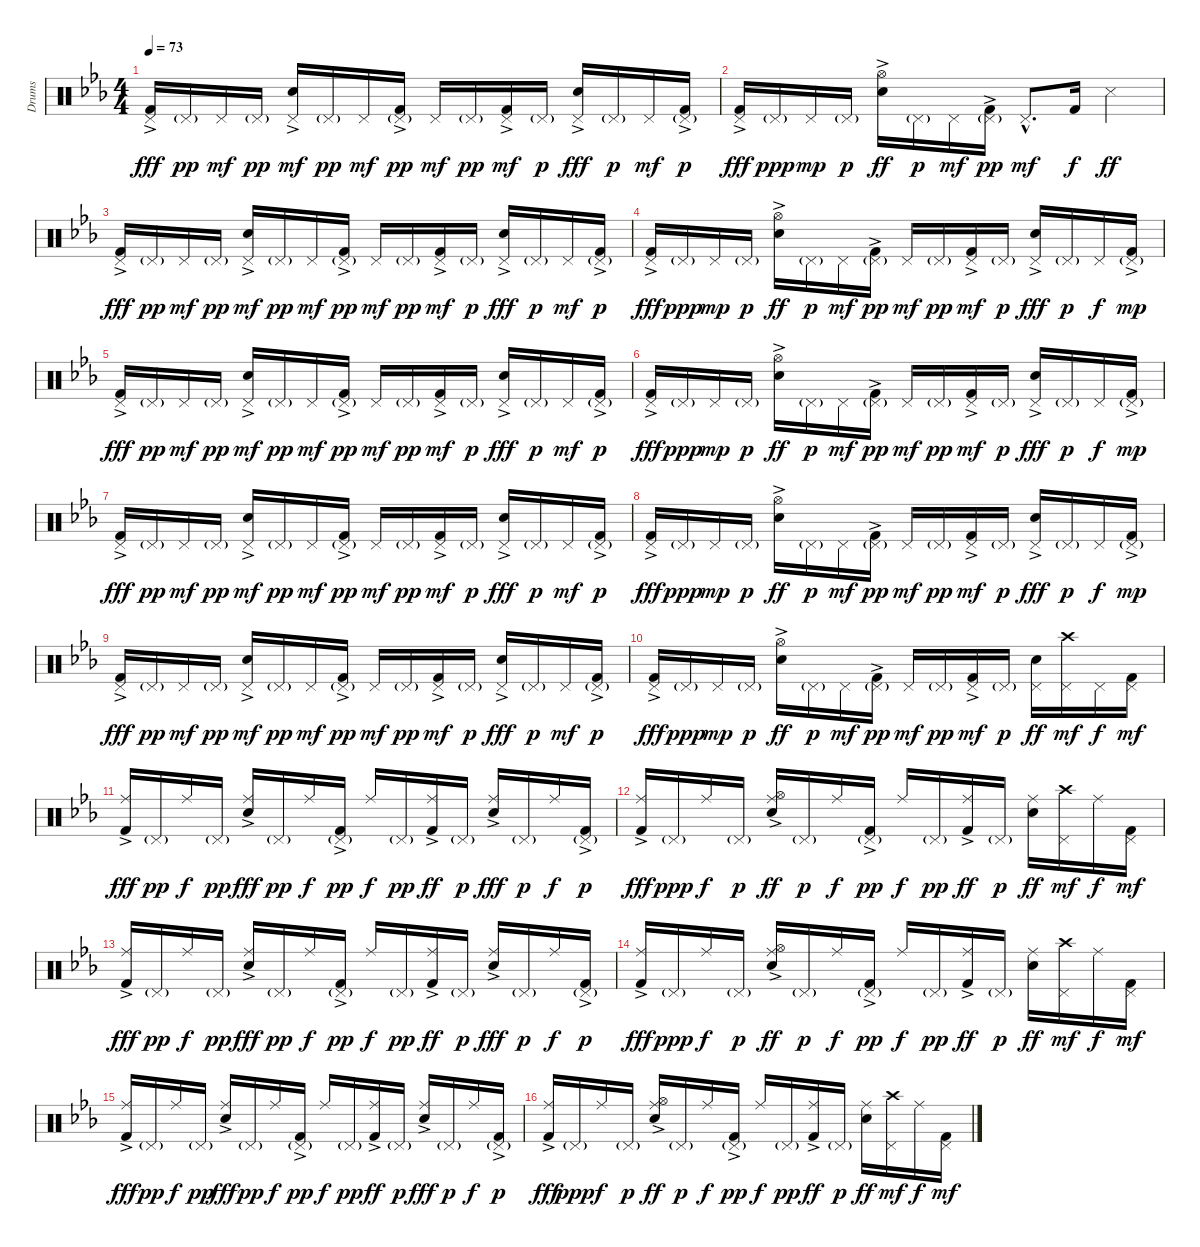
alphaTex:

\track ("Drums" "Drums") {instrument percussion}
\staff {score}
\articulation defaults
\ts (4 4)
\tempo 73
\clef neutral
\ks eb
("Kick (hit) 2"{ac} "Pedal Hi-Hat (hit)").16{dy fff} "Pedal Hi-Hat (hit)"{g}.16{dy pp} "Pedal Hi-Hat (hit)".16{dy mf} "Pedal Hi-Hat (hit)"{g}.16{dy pp} ("Snare (hit) 2"{ac} "Pedal Hi-Hat (hit)").16{dy mf} "Pedal Hi-Hat (hit)"{g}.16{dy pp} "Pedal Hi-Hat (hit)".16{dy mf} ("Kick (hit) 2"{ac} "Pedal Hi-Hat (hit)"{g}).16{dy pp} "Pedal Hi-Hat (hit)".16{dy mf} "Pedal Hi-Hat (hit)"{g}.16{dy pp} ("Kick (hit) 2"{ac} "Pedal Hi-Hat (hit)").16{dy mf} "Pedal Hi-Hat (hit)"{g}.16{dy p} ("Snare (hit) 2"{ac} "Pedal Hi-Hat (hit)").16{dy fff} "Pedal Hi-Hat (hit)"{g}.16{dy p} "Pedal Hi-Hat (hit)".16{dy mf} ("Kick (hit) 2"{ac} "Pedal Hi-Hat (hit)"{g}).16{dy p} |
("Kick (hit) 2"{ac} "Pedal Hi-Hat (hit)").16{dy fff} "Pedal Hi-Hat (hit)"{g}.16{dy ppp} "Pedal Hi-Hat (hit)".16{dy mp} "Pedal Hi-Hat (hit)"{g}.16{dy p} ("Snare (hit) 2"{ac} "Hi-Hat (open)").16{dy ff} "Pedal Hi-Hat (hit)"{g}.16{dy p} "Pedal Hi-Hat (hit)".16{dy mf} ("Kick (hit) 2"{ac} "Pedal Hi-Hat (hit)"{g}).16{dy pp} "Pedal Hi-Hat (hit)"{hac}.8{d dy mf} "Kick (hit) 2".16{dy f} "Snare (side stick) 3".4{dy ff} |
("Kick (hit) 2"{ac} "Pedal Hi-Hat (hit)").16{dy fff} "Pedal Hi-Hat (hit)"{g}.16{dy pp} "Pedal Hi-Hat (hit)".16{dy mf} "Pedal Hi-Hat (hit)"{g}.16{dy pp} ("Snare (hit) 2"{ac} "Pedal Hi-Hat (hit)").16{dy mf} "Pedal Hi-Hat (hit)"{g}.16{dy pp} "Pedal Hi-Hat (hit)".16{dy mf} ("Kick (hit) 2"{ac} "Pedal Hi-Hat (hit)"{g}).16{dy pp} "Pedal Hi-Hat (hit)".16{dy mf} "Pedal Hi-Hat (hit)"{g}.16{dy pp} ("Kick (hit) 2"{ac} "Pedal Hi-Hat (hit)").16{dy mf} "Pedal Hi-Hat (hit)"{g}.16{dy p} ("Snare (hit) 2"{ac} "Pedal Hi-Hat (hit)").16{dy fff} "Pedal Hi-Hat (hit)"{g}.16{dy p} "Pedal Hi-Hat (hit)".16{dy mf} ("Kick (hit) 2"{ac} "Pedal Hi-Hat (hit)"{g}).16{dy p} |
("Kick (hit) 2"{ac} "Pedal Hi-Hat (hit)").16{dy fff} "Pedal Hi-Hat (hit)"{g}.16{dy ppp} "Pedal Hi-Hat (hit)".16{dy mp} "Pedal Hi-Hat (hit)"{g}.16{dy p} ("Snare (hit) 2"{ac} "Hi-Hat (open)").16{dy ff} "Pedal Hi-Hat (hit)"{g}.16{dy p} "Pedal Hi-Hat (hit)".16{dy mf} ("Kick (hit) 2"{ac} "Pedal Hi-Hat (hit)"{g}).16{dy pp} "Pedal Hi-Hat (hit)".16{dy mf} "Pedal Hi-Hat (hit)"{g}.16{dy pp} ("Kick (hit) 2"{ac} "Pedal Hi-Hat (hit)").16{dy mf} "Pedal Hi-Hat (hit)"{g}.16{dy p} ("Snare (hit) 2"{ac} "Pedal Hi-Hat (hit)").16{dy fff} "Pedal Hi-Hat (hit)"{g}.16{dy p} "Pedal Hi-Hat (hit)".16{dy f} ("Kick (hit) 2"{ac} "Pedal Hi-Hat (hit)"{g}).16{dy mp} |
("Kick (hit) 2"{ac} "Pedal Hi-Hat (hit)").16{dy fff} "Pedal Hi-Hat (hit)"{g}.16{dy pp} "Pedal Hi-Hat (hit)".16{dy mf} "Pedal Hi-Hat (hit)"{g}.16{dy pp} ("Snare (hit) 2"{ac} "Pedal Hi-Hat (hit)").16{dy mf} "Pedal Hi-Hat (hit)"{g}.16{dy pp} "Pedal Hi-Hat (hit)".16{dy mf} ("Kick (hit) 2"{ac} "Pedal Hi-Hat (hit)"{g}).16{dy pp} "Pedal Hi-Hat (hit)".16{dy mf} "Pedal Hi-Hat (hit)"{g}.16{dy pp} ("Kick (hit) 2"{ac} "Pedal Hi-Hat (hit)").16{dy mf} "Pedal Hi-Hat (hit)"{g}.16{dy p} ("Snare (hit) 2"{ac} "Pedal Hi-Hat (hit)").16{dy fff} "Pedal Hi-Hat (hit)"{g}.16{dy p} "Pedal Hi-Hat (hit)".16{dy mf} ("Kick (hit) 2"{ac} "Pedal Hi-Hat (hit)"{g}).16{dy p} |
("Kick (hit) 2"{ac} "Pedal Hi-Hat (hit)").16{dy fff} "Pedal Hi-Hat (hit)"{g}.16{dy ppp} "Pedal Hi-Hat (hit)".16{dy mp} "Pedal Hi-Hat (hit)"{g}.16{dy p} ("Snare (hit) 2"{ac} "Hi-Hat (open)").16{dy ff} "Pedal Hi-Hat (hit)"{g}.16{dy p} "Pedal Hi-Hat (hit)".16{dy mf} ("Kick (hit) 2"{ac} "Pedal Hi-Hat (hit)"{g}).16{dy pp} "Pedal Hi-Hat (hit)".16{dy mf} "Pedal Hi-Hat (hit)"{g}.16{dy pp} ("Kick (hit) 2"{ac} "Pedal Hi-Hat (hit)").16{dy mf} "Pedal Hi-Hat (hit)"{g}.16{dy p} ("Snare (hit) 2"{ac} "Pedal Hi-Hat (hit)").16{dy fff} "Pedal Hi-Hat (hit)"{g}.16{dy p} "Pedal Hi-Hat (hit)".16{dy f} ("Kick (hit) 2"{ac} "Pedal Hi-Hat (hit)"{g}).16{dy mp} |
("Kick (hit) 2"{ac} "Pedal Hi-Hat (hit)").16{dy fff} "Pedal Hi-Hat (hit)"{g}.16{dy pp} "Pedal Hi-Hat (hit)".16{dy mf} "Pedal Hi-Hat (hit)"{g}.16{dy pp} ("Snare (hit) 2"{ac} "Pedal Hi-Hat (hit)").16{dy mf} "Pedal Hi-Hat (hit)"{g}.16{dy pp} "Pedal Hi-Hat (hit)".16{dy mf} ("Kick (hit) 2"{ac} "Pedal Hi-Hat (hit)"{g}).16{dy pp} "Pedal Hi-Hat (hit)".16{dy mf} "Pedal Hi-Hat (hit)"{g}.16{dy pp} ("Kick (hit) 2"{ac} "Pedal Hi-Hat (hit)").16{dy mf} "Pedal Hi-Hat (hit)"{g}.16{dy p} ("Snare (hit) 2"{ac} "Pedal Hi-Hat (hit)").16{dy fff} "Pedal Hi-Hat (hit)"{g}.16{dy p} "Pedal Hi-Hat (hit)".16{dy mf} ("Kick (hit) 2"{ac} "Pedal Hi-Hat (hit)"{g}).16{dy p} |
("Kick (hit) 2"{ac} "Pedal Hi-Hat (hit)").16{dy fff} "Pedal Hi-Hat (hit)"{g}.16{dy ppp} "Pedal Hi-Hat (hit)".16{dy mp} "Pedal Hi-Hat (hit)"{g}.16{dy p} ("Snare (hit) 2"{ac} "Hi-Hat (open)").16{dy ff} "Pedal Hi-Hat (hit)"{g}.16{dy p} "Pedal Hi-Hat (hit)".16{dy mf} ("Kick (hit) 2"{ac} "Pedal Hi-Hat (hit)"{g}).16{dy pp} "Pedal Hi-Hat (hit)".16{dy mf} "Pedal Hi-Hat (hit)"{g}.16{dy pp} ("Kick (hit) 2"{ac} "Pedal Hi-Hat (hit)").16{dy mf} "Pedal Hi-Hat (hit)"{g}.16{dy p} ("Snare (hit) 2"{ac} "Pedal Hi-Hat (hit)").16{dy fff} "Pedal Hi-Hat (hit)"{g}.16{dy p} "Pedal Hi-Hat (hit)".16{dy f} ("Kick (hit) 2"{ac} "Pedal Hi-Hat (hit)"{g}).16{dy mp} |
("Kick (hit) 2"{ac} "Pedal Hi-Hat (hit)").16{dy fff} "Pedal Hi-Hat (hit)"{g}.16{dy pp} "Pedal Hi-Hat (hit)".16{dy mf} "Pedal Hi-Hat (hit)"{g}.16{dy pp} ("Snare (hit) 2"{ac} "Pedal Hi-Hat (hit)").16{dy mf} "Pedal Hi-Hat (hit)"{g}.16{dy pp} "Pedal Hi-Hat (hit)".16{dy mf} ("Kick (hit) 2"{ac} "Pedal Hi-Hat (hit)"{g}).16{dy pp} "Pedal Hi-Hat (hit)".16{dy mf} "Pedal Hi-Hat (hit)"{g}.16{dy pp} ("Kick (hit) 2"{ac} "Pedal Hi-Hat (hit)").16{dy mf} "Pedal Hi-Hat (hit)"{g}.16{dy p} ("Snare (hit) 2"{ac} "Pedal Hi-Hat (hit)").16{dy fff} "Pedal Hi-Hat (hit)"{g}.16{dy p} "Pedal Hi-Hat (hit)".16{dy mf} ("Kick (hit) 2"{ac} "Pedal Hi-Hat (hit)"{g}).16{dy p} |
("Kick (hit) 2"{ac} "Pedal Hi-Hat (hit)").16{dy fff} "Pedal Hi-Hat (hit)"{g}.16{dy ppp} "Pedal Hi-Hat (hit)".16{dy mp} "Pedal Hi-Hat (hit)"{g}.16{dy p} ("Snare (hit) 2"{ac} "Hi-Hat (open)").16{dy ff} "Pedal Hi-Hat (hit)"{g}.16{dy p} "Pedal Hi-Hat (hit)".16{dy mf} ("Kick (hit) 2"{ac} "Pedal Hi-Hat (hit)"{g}).16{dy pp} "Pedal Hi-Hat (hit)".16{dy mf} "Pedal Hi-Hat (hit)"{g}.16{dy pp} ("Kick (hit) 2"{ac} "Pedal Hi-Hat (hit)").16{dy mf} "Pedal Hi-Hat (hit)"{g}.16{dy p} ("Snare (hit) 2" "Pedal Hi-Hat (hit)").16{dy ff} ("Pedal Hi-Hat (hit)" "Crash high (hit)").16{dy mf} "Pedal Hi-Hat (hit)".16{dy f} ("Kick (hit) 2" "Pedal Hi-Hat (hit)").16{dy mf} |
("Kick (hit) 2"{ac} "Ride (middle)").16{dy fff} "Pedal Hi-Hat (hit)"{g}.16{dy pp} "Ride (middle)".16{dy f} "Pedal Hi-Hat (hit)"{g}.16{dy pp} ("Snare (hit) 2"{ac} "Ride (middle)").16{dy fff} "Pedal Hi-Hat (hit)"{g}.16{dy pp} "Ride (middle)".16{dy f} ("Kick (hit) 2"{ac} "Pedal Hi-Hat (hit)"{g}).16{dy pp} "Ride (middle)".16{dy f} "Pedal Hi-Hat (hit)"{g}.16{dy pp} ("Kick (hit) 2"{ac} "Ride (middle)").16{dy ff} "Pedal Hi-Hat (hit)"{g}.16{dy p} ("Snare (hit) 2"{ac} "Ride (middle)").16{dy fff} "Pedal Hi-Hat (hit)"{g}.16{dy p} "Ride (middle)".16{dy f} ("Kick (hit) 2"{ac} "Pedal Hi-Hat (hit)"{g}).16{dy p} |
("Kick (hit) 2"{ac} "Ride (middle)").16{dy fff} "Pedal Hi-Hat (hit)"{g}.16{dy ppp} "Ride (middle)".16{dy f} "Pedal Hi-Hat (hit)"{g}.16{dy p} ("Snare (hit) 2"{ac} "Hi-Hat (open)" "Ride (middle)").16{dy ff} "Pedal Hi-Hat (hit)"{g}.16{dy p} "Ride (middle)".16{dy f} ("Kick (hit) 2"{ac} "Pedal Hi-Hat (hit)"{g}).16{dy pp} "Ride (middle)".16{dy f} "Pedal Hi-Hat (hit)"{g}.16{dy pp} ("Kick (hit) 2"{ac} "Ride (middle)").16{dy ff} "Pedal Hi-Hat (hit)"{g}.16{dy p} ("Snare (hit) 2" "Ride (middle)").16{dy ff} ("Pedal Hi-Hat (hit)" "Crash high (hit)").16{dy mf} "Ride (middle)".16{dy f} ("Kick (hit) 2" "Pedal Hi-Hat (hit)").16{dy mf} |
("Kick (hit) 2"{ac} "Ride (middle)").16{dy fff} "Pedal Hi-Hat (hit)"{g}.16{dy pp} "Ride (middle)".16{dy f} "Pedal Hi-Hat (hit)"{g}.16{dy pp} ("Snare (hit) 2"{ac} "Ride (middle)").16{dy fff} "Pedal Hi-Hat (hit)"{g}.16{dy pp} "Ride (middle)".16{dy f} ("Kick (hit) 2"{ac} "Pedal Hi-Hat (hit)"{g}).16{dy pp} "Ride (middle)".16{dy f} "Pedal Hi-Hat (hit)"{g}.16{dy pp} ("Kick (hit) 2"{ac} "Ride (middle)").16{dy ff} "Pedal Hi-Hat (hit)"{g}.16{dy p} ("Snare (hit) 2"{ac} "Ride (middle)").16{dy fff} "Pedal Hi-Hat (hit)"{g}.16{dy p} "Ride (middle)".16{dy f} ("Kick (hit) 2"{ac} "Pedal Hi-Hat (hit)"{g}).16{dy p} |
("Kick (hit) 2"{ac} "Ride (middle)").16{dy fff} "Pedal Hi-Hat (hit)"{g}.16{dy ppp} "Ride (middle)".16{dy f} "Pedal Hi-Hat (hit)"{g}.16{dy p} ("Snare (hit) 2"{ac} "Hi-Hat (open)" "Ride (middle)").16{dy ff} "Pedal Hi-Hat (hit)"{g}.16{dy p} "Ride (middle)".16{dy f} ("Kick (hit) 2"{ac} "Pedal Hi-Hat (hit)"{g}).16{dy pp} "Ride (middle)".16{dy f} "Pedal Hi-Hat (hit)"{g}.16{dy pp} ("Kick (hit) 2"{ac} "Ride (middle)").16{dy ff} "Pedal Hi-Hat (hit)"{g}.16{dy p} ("Snare (hit) 2" "Ride (middle)").16{dy ff} ("Pedal Hi-Hat (hit)" "Crash high (hit)").16{dy mf} "Ride (middle)".16{dy f} ("Kick (hit) 2" "Pedal Hi-Hat (hit)").16{dy mf} |
("Kick (hit) 2"{ac} "Ride (middle)").16{dy fff} "Pedal Hi-Hat (hit)"{g}.16{dy pp} "Ride (middle)".16{dy f} "Pedal Hi-Hat (hit)"{g}.16{dy pp} ("Snare (hit) 2"{ac} "Ride (middle)").16{dy fff} "Pedal Hi-Hat (hit)"{g}.16{dy pp} "Ride (middle)".16{dy f} ("Kick (hit) 2"{ac} "Pedal Hi-Hat (hit)"{g}).16{dy pp} "Ride (middle)".16{dy f} "Pedal Hi-Hat (hit)"{g}.16{dy pp} ("Kick (hit) 2"{ac} "Ride (middle)").16{dy ff} "Pedal Hi-Hat (hit)"{g}.16{dy p} ("Snare (hit) 2"{ac} "Ride (middle)").16{dy fff} "Pedal Hi-Hat (hit)"{g}.16{dy p} "Ride (middle)".16{dy f} ("Kick (hit) 2"{ac} "Pedal Hi-Hat (hit)"{g}).16{dy p} |
("Kick (hit) 2"{ac} "Ride (middle)").16{dy fff} "Pedal Hi-Hat (hit)"{g}.16{dy ppp} "Ride (middle)".16{dy f} "Pedal Hi-Hat (hit)"{g}.16{dy p} ("Snare (hit) 2"{ac} "Hi-Hat (open)" "Ride (middle)").16{dy ff} "Pedal Hi-Hat (hit)"{g}.16{dy p} "Ride (middle)".16{dy f} ("Kick (hit) 2"{ac} "Pedal Hi-Hat (hit)"{g}).16{dy pp} "Ride (middle)".16{dy f} "Pedal Hi-Hat (hit)"{g}.16{dy pp} ("Kick (hit) 2"{ac} "Ride (middle)").16{dy ff} "Pedal Hi-Hat (hit)"{g}.16{dy p} ("Snare (hit) 2" "Ride (middle)").16{dy ff} ("Pedal Hi-Hat (hit)" "Crash high (hit)").16{dy mf} "Ride (middle)".16{dy f} ("Kick (hit) 2" "Pedal Hi-Hat (hit)").16{dy mf}
